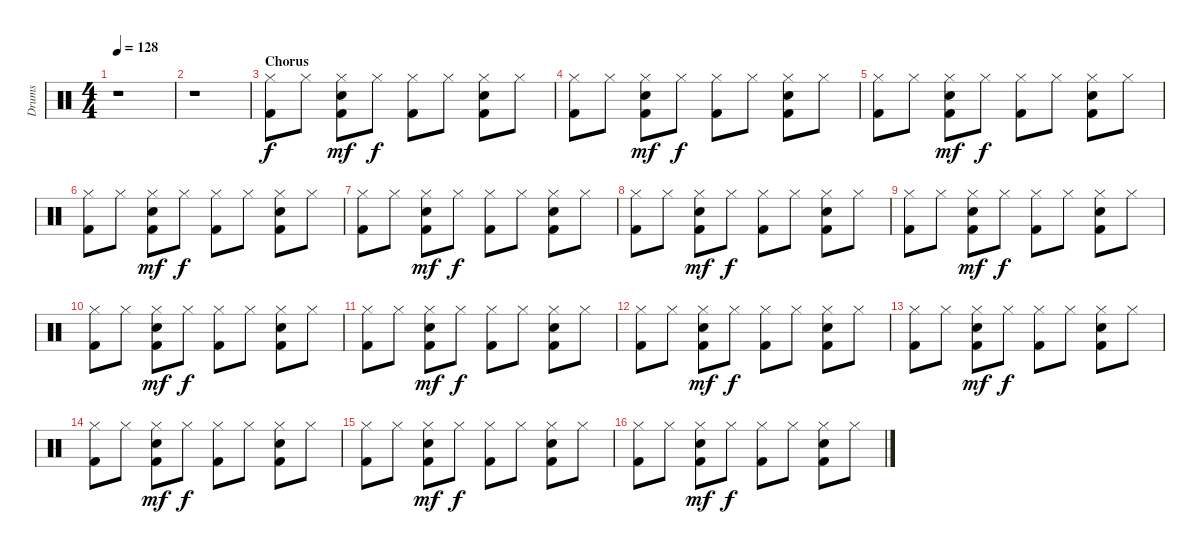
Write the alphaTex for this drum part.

\track ("Drums" "Drums") {instrument percussion}
\staff {score}
\articulation defaults
\ts (4 4)
\tempo 128
\clef neutral
\ks c
r.1{dy f} |
r.1 |
\section ("" "Chorus")
("Kick (hit) 2" "Hi-Hat (closed)").8 "Hi-Hat (closed)".8 ("Kick (hit) 2" "Snare (hit) 2" "Hi-Hat (closed)").8{dy mf} "Hi-Hat (closed)".8{dy f} ("Kick (hit) 2" "Hi-Hat (closed)").8 "Hi-Hat (closed)".8 ("Kick (hit) 2" "Snare (hit) 2" "Hi-Hat (closed)").8 "Hi-Hat (closed)".8 |
("Kick (hit) 2" "Hi-Hat (closed)").8 "Hi-Hat (closed)".8 ("Kick (hit) 2" "Snare (hit) 2" "Hi-Hat (closed)").8{dy mf} "Hi-Hat (closed)".8{dy f} ("Kick (hit) 2" "Hi-Hat (closed)").8 "Hi-Hat (closed)".8 ("Kick (hit) 2" "Snare (hit) 2" "Hi-Hat (closed)").8 "Hi-Hat (closed)".8 |
("Kick (hit) 2" "Hi-Hat (closed)").8 "Hi-Hat (closed)".8 ("Kick (hit) 2" "Snare (hit) 2" "Hi-Hat (closed)").8{dy mf} "Hi-Hat (closed)".8{dy f} ("Kick (hit) 2" "Hi-Hat (closed)").8 "Hi-Hat (closed)".8 ("Kick (hit) 2" "Snare (hit) 2" "Hi-Hat (closed)").8 "Hi-Hat (closed)".8 |
("Kick (hit) 2" "Hi-Hat (closed)").8 "Hi-Hat (closed)".8 ("Kick (hit) 2" "Snare (hit) 2" "Hi-Hat (closed)").8{dy mf} "Hi-Hat (closed)".8{dy f} ("Kick (hit) 2" "Hi-Hat (closed)").8 "Hi-Hat (closed)".8 ("Kick (hit) 2" "Snare (hit) 2" "Hi-Hat (closed)").8 "Hi-Hat (closed)".8 |
("Kick (hit) 2" "Hi-Hat (closed)").8 "Hi-Hat (closed)".8 ("Kick (hit) 2" "Snare (hit) 2" "Hi-Hat (closed)").8{dy mf} "Hi-Hat (closed)".8{dy f} ("Kick (hit) 2" "Hi-Hat (closed)").8 "Hi-Hat (closed)".8 ("Kick (hit) 2" "Snare (hit) 2" "Hi-Hat (closed)").8 "Hi-Hat (closed)".8 |
("Kick (hit) 2" "Hi-Hat (closed)").8 "Hi-Hat (closed)".8 ("Kick (hit) 2" "Snare (hit) 2" "Hi-Hat (closed)").8{dy mf} "Hi-Hat (closed)".8{dy f} ("Kick (hit) 2" "Hi-Hat (closed)").8 "Hi-Hat (closed)".8 ("Kick (hit) 2" "Snare (hit) 2" "Hi-Hat (closed)").8 "Hi-Hat (closed)".8 |
("Kick (hit) 2" "Hi-Hat (closed)").8 "Hi-Hat (closed)".8 ("Kick (hit) 2" "Snare (hit) 2" "Hi-Hat (closed)").8{dy mf} "Hi-Hat (closed)".8{dy f} ("Kick (hit) 2" "Hi-Hat (closed)").8 "Hi-Hat (closed)".8 ("Kick (hit) 2" "Snare (hit) 2" "Hi-Hat (closed)").8 "Hi-Hat (closed)".8 |
("Kick (hit) 2" "Hi-Hat (closed)").8 "Hi-Hat (closed)".8 ("Kick (hit) 2" "Snare (hit) 2" "Hi-Hat (closed)").8{dy mf} "Hi-Hat (closed)".8{dy f} ("Kick (hit) 2" "Hi-Hat (closed)").8 "Hi-Hat (closed)".8 ("Kick (hit) 2" "Snare (hit) 2" "Hi-Hat (closed)").8 "Hi-Hat (closed)".8 |
("Kick (hit) 2" "Hi-Hat (closed)").8 "Hi-Hat (closed)".8 ("Kick (hit) 2" "Snare (hit) 2" "Hi-Hat (closed)").8{dy mf} "Hi-Hat (closed)".8{dy f} ("Kick (hit) 2" "Hi-Hat (closed)").8 "Hi-Hat (closed)".8 ("Kick (hit) 2" "Snare (hit) 2" "Hi-Hat (closed)").8 "Hi-Hat (closed)".8 |
("Kick (hit) 2" "Hi-Hat (closed)").8 "Hi-Hat (closed)".8 ("Kick (hit) 2" "Snare (hit) 2" "Hi-Hat (closed)").8{dy mf} "Hi-Hat (closed)".8{dy f} ("Kick (hit) 2" "Hi-Hat (closed)").8 "Hi-Hat (closed)".8 ("Kick (hit) 2" "Snare (hit) 2" "Hi-Hat (closed)").8 "Hi-Hat (closed)".8 |
("Kick (hit) 2" "Hi-Hat (closed)").8 "Hi-Hat (closed)".8 ("Kick (hit) 2" "Snare (hit) 2" "Hi-Hat (closed)").8{dy mf} "Hi-Hat (closed)".8{dy f} ("Kick (hit) 2" "Hi-Hat (closed)").8 "Hi-Hat (closed)".8 ("Kick (hit) 2" "Snare (hit) 2" "Hi-Hat (closed)").8 "Hi-Hat (closed)".8 |
("Kick (hit) 2" "Hi-Hat (closed)").8 "Hi-Hat (closed)".8 ("Kick (hit) 2" "Snare (hit) 2" "Hi-Hat (closed)").8{dy mf} "Hi-Hat (closed)".8{dy f} ("Kick (hit) 2" "Hi-Hat (closed)").8 "Hi-Hat (closed)".8 ("Kick (hit) 2" "Snare (hit) 2" "Hi-Hat (closed)").8 "Hi-Hat (closed)".8 |
("Kick (hit) 2" "Hi-Hat (closed)").8 "Hi-Hat (closed)".8 ("Kick (hit) 2" "Snare (hit) 2" "Hi-Hat (closed)").8{dy mf} "Hi-Hat (closed)".8{dy f} ("Kick (hit) 2" "Hi-Hat (closed)").8 "Hi-Hat (closed)".8 ("Kick (hit) 2" "Snare (hit) 2" "Hi-Hat (closed)").8 "Hi-Hat (closed)".8 |
("Kick (hit) 2" "Hi-Hat (closed)").8 "Hi-Hat (closed)".8 ("Kick (hit) 2" "Snare (hit) 2" "Hi-Hat (closed)").8{dy mf} "Hi-Hat (closed)".8{dy f} ("Kick (hit) 2" "Hi-Hat (closed)").8 "Hi-Hat (closed)".8 ("Kick (hit) 2" "Snare (hit) 2" "Hi-Hat (closed)").8 "Hi-Hat (closed)".8
